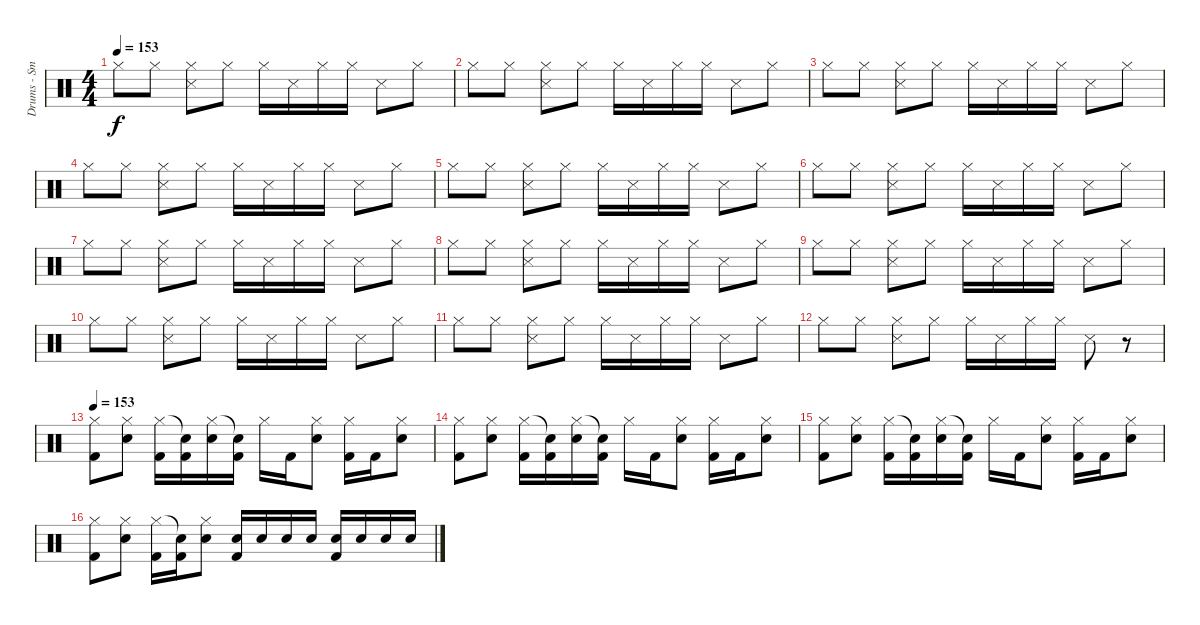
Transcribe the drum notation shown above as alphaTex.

\track ("Drums - Smelly" "Drums - Sm") {instrument percussion}
\staff {score}
\articulation defaults
\ts (4 4)
\tempo 153
\tempo 120
\tempo 153
\clef neutral
\ks c "Hi-Hat (closed)".8{dy f} "Hi-Hat (closed)".8
("Hi-Hat (closed)" "Snare (side stick) 3").8 "Hi-Hat (closed)".8 "Hi-Hat (closed)".16 "Snare (side stick) 3".16 "Hi-Hat (closed)".16 "Hi-Hat (closed)".16 "Snare (side stick) 3".8 "Hi-Hat (closed)".8 |
"Hi-Hat (closed)".8 "Hi-Hat (closed)".8 ("Hi-Hat (closed)" "Snare (side stick) 3").8 "Hi-Hat (closed)".8 "Hi-Hat (closed)".16 "Snare (side stick) 3".16 "Hi-Hat (closed)".16 "Hi-Hat (closed)".16 "Snare (side stick) 3".8 "Hi-Hat (closed)".8 |
"Hi-Hat (closed)".8 "Hi-Hat (closed)".8 ("Hi-Hat (closed)" "Snare (side stick) 3").8 "Hi-Hat (closed)".8 "Hi-Hat (closed)".16 "Snare (side stick) 3".16 "Hi-Hat (closed)".16 "Hi-Hat (closed)".16 "Snare (side stick) 3".8 "Hi-Hat (closed)".8 |
"Hi-Hat (closed)".8 "Hi-Hat (closed)".8 ("Hi-Hat (closed)" "Snare (side stick) 3").8 "Hi-Hat (closed)".8 "Hi-Hat (closed)".16 "Snare (side stick) 3".16 "Hi-Hat (closed)".16 "Hi-Hat (closed)".16 "Snare (side stick) 3".8 "Hi-Hat (closed)".8 |
"Hi-Hat (closed)".8 "Hi-Hat (closed)".8 ("Hi-Hat (closed)" "Snare (side stick) 3").8 "Hi-Hat (closed)".8 "Hi-Hat (closed)".16 "Snare (side stick) 3".16 "Hi-Hat (closed)".16 "Hi-Hat (closed)".16 "Snare (side stick) 3".8 "Hi-Hat (closed)".8 |
"Hi-Hat (closed)".8 "Hi-Hat (closed)".8 ("Hi-Hat (closed)" "Snare (side stick) 3").8 "Hi-Hat (closed)".8 "Hi-Hat (closed)".16 "Snare (side stick) 3".16 "Hi-Hat (closed)".16 "Hi-Hat (closed)".16 "Snare (side stick) 3".8 "Hi-Hat (closed)".8 |
"Hi-Hat (closed)".8 "Hi-Hat (closed)".8 ("Hi-Hat (closed)" "Snare (side stick) 3").8 "Hi-Hat (closed)".8 "Hi-Hat (closed)".16 "Snare (side stick) 3".16 "Hi-Hat (closed)".16 "Hi-Hat (closed)".16 "Snare (side stick) 3".8 "Hi-Hat (closed)".8 |
"Hi-Hat (closed)".8 "Hi-Hat (closed)".8 ("Hi-Hat (closed)" "Snare (side stick) 3").8 "Hi-Hat (closed)".8 "Hi-Hat (closed)".16 "Snare (side stick) 3".16 "Hi-Hat (closed)".16 "Hi-Hat (closed)".16 "Snare (side stick) 3".8 "Hi-Hat (closed)".8 |
"Hi-Hat (closed)".8 "Hi-Hat (closed)".8 ("Hi-Hat (closed)" "Snare (side stick) 3").8 "Hi-Hat (closed)".8 "Hi-Hat (closed)".16 "Snare (side stick) 3".16 "Hi-Hat (closed)".16 "Hi-Hat (closed)".16 "Snare (side stick) 3".8 "Hi-Hat (closed)".8 |
"Hi-Hat (closed)".8 "Hi-Hat (closed)".8 ("Hi-Hat (closed)" "Snare (side stick) 3").8 "Hi-Hat (closed)".8 "Hi-Hat (closed)".16 "Snare (side stick) 3".16 "Hi-Hat (closed)".16 "Hi-Hat (closed)".16 "Snare (side stick) 3".8 "Hi-Hat (closed)".8 |
"Hi-Hat (closed)".8 "Hi-Hat (closed)".8 ("Hi-Hat (closed)" "Snare (side stick) 3").8 "Hi-Hat (closed)".8 "Hi-Hat (closed)".16 "Snare (side stick) 3".16 "Hi-Hat (closed)".16 "Hi-Hat (closed)".16 "Snare (side stick) 3".8 "Hi-Hat (closed)".8 |
"Hi-Hat (closed)".8 "Hi-Hat (closed)".8 ("Hi-Hat (closed)" "Snare (side stick) 3").8 "Hi-Hat (closed)".8 "Hi-Hat (closed)".16 "Snare (side stick) 3".16 "Hi-Hat (closed)".16 "Hi-Hat (closed)".16 "Snare (side stick) 3".8 r.8 |
\tempo 153
("Hi-Hat (closed)" "Kick (hit) 2").8 ("Hi-Hat (closed)" "Snare (hit) 2").8 ("Hi-Hat (closed)" "Kick (hit) 2").16 ("Snare (hit)"{t} "Kick (hit) 2").16 ("Hi-Hat (closed)" "Snare (hit) 2").16 ("Snare (hit)"{t} "Kick (hit) 2").16 "Hi-Hat (closed)".16 "Kick (hit) 2".16 ("Hi-Hat (closed)" "Snare (hit) 2").8 ("Hi-Hat (closed)" "Kick (hit) 2").16 "Kick (hit) 2".16 ("Hi-Hat (closed)" "Snare (hit) 2").8 |
("Hi-Hat (closed)" "Kick (hit) 2").8 ("Hi-Hat (closed)" "Snare (hit) 2").8 ("Hi-Hat (closed)" "Kick (hit) 2").16 ("Snare (hit)"{t} "Kick (hit) 2").16 ("Hi-Hat (closed)" "Snare (hit) 2").16 ("Snare (hit)"{t} "Kick (hit) 2").16 "Hi-Hat (closed)".16 "Kick (hit) 2".16 ("Hi-Hat (closed)" "Snare (hit) 2").8 ("Hi-Hat (closed)" "Kick (hit) 2").16 "Kick (hit) 2".16 ("Hi-Hat (closed)" "Snare (hit) 2").8 |
("Hi-Hat (closed)" "Kick (hit) 2").8 ("Hi-Hat (closed)" "Snare (hit) 2").8 ("Hi-Hat (closed)" "Kick (hit) 2").16 ("Snare (hit)"{t} "Kick (hit) 2").16 ("Hi-Hat (closed)" "Snare (hit) 2").16 ("Snare (hit)"{t} "Kick (hit) 2").16 "Hi-Hat (closed)".16 "Kick (hit) 2".16 ("Hi-Hat (closed)" "Snare (hit) 2").8 ("Hi-Hat (closed)" "Kick (hit) 2").16 "Kick (hit) 2".16 ("Hi-Hat (closed)" "Snare (hit) 2").8 |
("Hi-Hat (closed)" "Kick (hit) 2").8 ("Hi-Hat (closed)" "Snare (hit) 2").8 ("Hi-Hat (closed)" "Kick (hit) 2").16 ("Snare (hit)"{t} "Kick (hit) 2").16 ("Hi-Hat (closed)" "Snare (hit) 2").8 ("Snare (hit) 2" "Kick (hit) 2").16 "Snare (hit) 2".16 "Snare (hit) 2".16 "Snare (hit) 2".16 ("Snare (hit) 2" "Kick (hit) 2").16 "Snare (hit) 2".16 "Snare (hit) 2".16 "Snare (hit) 2".16
